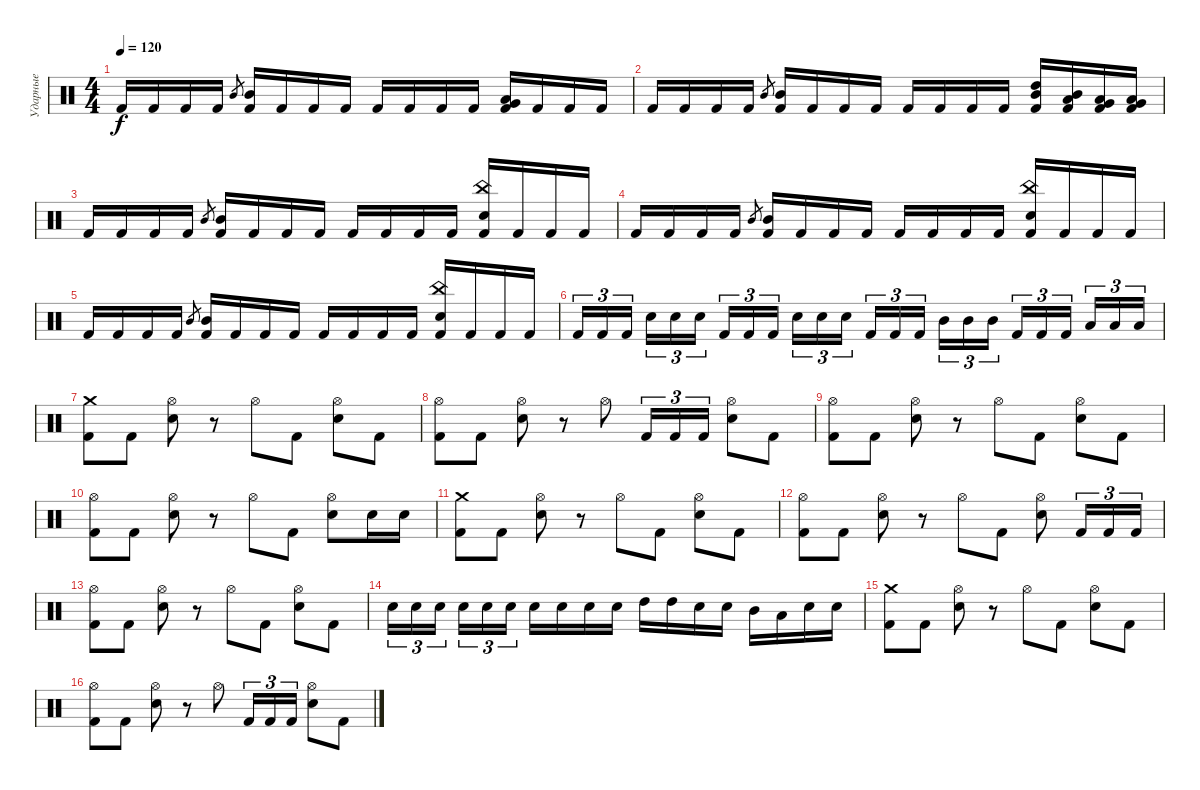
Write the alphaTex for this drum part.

\track ("Ударные" "Ударные") {instrument percussion}
\staff {score}
\articulation defaults
\ts (4 4)
\tempo 120
\clef neutral
\ks c "Kick (hit) 2".16{dy f} "Kick (hit) 2".16 "Kick (hit) 2".16 "Kick (hit) 2".16 "Mid Tom (hit)".8{gr}
("Mid Tom (hit)" "Kick (hit) 2").16 "Kick (hit) 2".16 "Kick (hit) 2".16 "Kick (hit) 2".16 "Kick (hit) 2".16 "Kick (hit) 2".16 "Kick (hit) 2".16 "Kick (hit) 2".16 ("Low Tom (hit)" "Very Low Tom (hit)" "Kick (hit) 2").16 "Kick (hit) 2".16 "Kick (hit) 2".16 "Kick (hit) 2".16 |
"Kick (hit) 2".16 "Kick (hit) 2".16 "Kick (hit) 2".16 "Kick (hit) 2".16 "Mid Tom (hit)".8{gr} ("Mid Tom (hit)" "Kick (hit) 2").16 "Kick (hit) 2".16 "Kick (hit) 2".16 "Kick (hit) 2".16 "Kick (hit) 2".16 "Kick (hit) 2".16 "Kick (hit) 2".16 "Kick (hit) 2".16 ("High Tom (hit)" "Mid Tom (hit)" "Kick (hit) 2").16 ("Mid Tom (hit)" "Low Tom (hit)" "Kick (hit) 2").16 ("Low Tom (hit)" "Very Low Tom (hit)" "Kick (hit) 2").16 ("Very Low Tom (hit)" "Low Floor Tom (hit)" "Kick (hit) 2").16 |
"Kick (hit) 2".16 "Kick (hit) 2".16 "Kick (hit) 2".16 "Kick (hit) 2".16 "Mid Tom (hit)".8{gr} ("Mid Tom (hit)" "Kick (hit) 2").16 "Kick (hit) 2".16 "Kick (hit) 2".16 "Kick (hit) 2".16 "Kick (hit) 2".16 "Kick (hit) 2".16 "Kick (hit) 2".16 "Kick (hit) 2".16 ("China (hit)" "Electric Snare (hit)" "Kick (hit) 2").16 "Kick (hit) 2".16 "Kick (hit) 2".16 "Kick (hit) 2".16 |
"Kick (hit) 2".16 "Kick (hit) 2".16 "Kick (hit) 2".16 "Kick (hit) 2".16 "Mid Tom (hit)".8{gr} ("Mid Tom (hit)" "Kick (hit) 2").16 "Kick (hit) 2".16 "Kick (hit) 2".16 "Kick (hit) 2".16 "Kick (hit) 2".16 "Kick (hit) 2".16 "Kick (hit) 2".16 "Kick (hit) 2".16 ("China (hit)" "Electric Snare (hit)" "Kick (hit) 2").16 "Kick (hit) 2".16 "Kick (hit) 2".16 "Kick (hit) 2".16 |
"Kick (hit) 2".16 "Kick (hit) 2".16 "Kick (hit) 2".16 "Kick (hit) 2".16 "Mid Tom (hit)".8{gr} ("Mid Tom (hit)" "Kick (hit) 2").16 "Kick (hit) 2".16 "Kick (hit) 2".16 "Kick (hit) 2".16 "Kick (hit) 2".16 "Kick (hit) 2".16 "Kick (hit) 2".16 "Kick (hit) 2".16 ("China (hit)" "Electric Snare (hit)" "Kick (hit) 2").16 "Kick (hit) 2".16 "Kick (hit) 2".16 "Kick (hit) 2".16 |
"Kick (hit) 2".16{tu (3 2)} "Kick (hit) 2".16{tu (3 2)} "Kick (hit) 2".16{tu (3 2) beam splitsecondary} "Electric Snare (hit)".16{tu (3 2)} "Electric Snare (hit)".16{tu (3 2)} "Electric Snare (hit)".16{tu (3 2)} "Kick (hit) 2".16{tu (3 2)} "Kick (hit) 2".16{tu (3 2)} "Kick (hit) 2".16{tu (3 2) beam splitsecondary} "Electric Snare (hit)".16{tu (3 2)} "Electric Snare (hit)".16{tu (3 2)} "Electric Snare (hit)".16{tu (3 2)} "Kick (hit) 2".16{tu (3 2)} "Kick (hit) 2".16{tu (3 2)} "Kick (hit) 2".16{tu (3 2) beam splitsecondary} "Mid Tom (hit)".16{tu (3 2)} "Mid Tom (hit)".16{tu (3 2)} "Mid Tom (hit)".16{tu (3 2)} "Kick (hit) 2".16{tu (3 2)} "Kick (hit) 2".16{tu (3 2)} "Kick (hit) 2".16{tu (3 2) beam splitsecondary} "Low Tom (hit)".16{tu (3 2)} "Low Tom (hit)".16{tu (3 2)} "Low Tom (hit)".16{tu (3 2)} |
("Crash medium (hit)" "Kick (hit) 2").8 "Kick (hit) 2".8 ("Hi-Hat (open)" "Electric Snare (hit)").8 r.8 "Hi-Hat (open)".8 "Kick (hit) 2".8 ("Hi-Hat (open)" "Electric Snare (hit)").8 "Kick (hit) 2".8 |
("Hi-Hat (open)" "Kick (hit) 2").8 "Kick (hit) 2".8 ("Hi-Hat (open)" "Electric Snare (hit)").8 r.8 "Hi-Hat (open)".8 "Kick (hit) 2".16{tu (3 2)} "Kick (hit) 2".16{tu (3 2)} "Kick (hit) 2".16{tu (3 2)} ("Hi-Hat (open)" "Electric Snare (hit)").8 "Kick (hit) 2".8 |
("Hi-Hat (open)" "Kick (hit) 2").8 "Kick (hit) 2".8 ("Hi-Hat (open)" "Electric Snare (hit)").8 r.8 "Hi-Hat (open)".8 "Kick (hit) 2".8 ("Hi-Hat (open)" "Electric Snare (hit)").8 "Kick (hit) 2".8 |
("Hi-Hat (open)" "Kick (hit) 2").8 "Kick (hit) 2".8 ("Hi-Hat (open)" "Electric Snare (hit)").8 r.8 "Hi-Hat (open)".8 "Kick (hit) 2".8 ("Hi-Hat (open)" "Electric Snare (hit)").8 "Electric Snare (hit)".16 "Electric Snare (hit)".16 |
("Crash medium (hit)" "Kick (hit) 2").8 "Kick (hit) 2".8 ("Hi-Hat (open)" "Electric Snare (hit)").8 r.8 "Hi-Hat (open)".8 "Kick (hit) 2".8 ("Hi-Hat (open)" "Electric Snare (hit)").8 "Kick (hit) 2".8 |
("Hi-Hat (open)" "Kick (hit) 2").8 "Kick (hit) 2".8 ("Hi-Hat (open)" "Electric Snare (hit)").8 r.8 "Hi-Hat (open)".8 "Kick (hit) 2".8 ("Hi-Hat (open)" "Electric Snare (hit)").8 "Kick (hit) 2".16{tu (3 2)} "Kick (hit) 2".16{tu (3 2)} "Kick (hit) 2".16{tu (3 2)} |
("Hi-Hat (open)" "Kick (hit) 2").8 "Kick (hit) 2".8 ("Hi-Hat (open)" "Electric Snare (hit)").8 r.8 "Hi-Hat (open)".8 "Kick (hit) 2".8 ("Hi-Hat (open)" "Electric Snare (hit)").8 "Kick (hit) 2".8 |
"Electric Snare (hit)".16{tu (3 2)} "Electric Snare (hit)".16{tu (3 2)} "Electric Snare (hit)".16{tu (3 2) beam splitsecondary} "Electric Snare (hit)".16{tu (3 2)} "Electric Snare (hit)".16{tu (3 2)} "Electric Snare (hit)".16{tu (3 2)} "Electric Snare (hit)".16 "Electric Snare (hit)".16 "Electric Snare (hit)".16 "Electric Snare (hit)".16 "High Tom (hit)".16 "High Tom (hit)".16 "Electric Snare (hit)".16 "Electric Snare (hit)".16 "Mid Tom (hit)".16 "Low Tom (hit)".16 "Electric Snare (hit)".16 "Electric Snare (hit)".16 |
("Crash medium (hit)" "Kick (hit) 2").8 "Kick (hit) 2".8 ("Hi-Hat (open)" "Electric Snare (hit)").8 r.8 "Hi-Hat (open)".8 "Kick (hit) 2".8 ("Hi-Hat (open)" "Electric Snare (hit)").8 "Kick (hit) 2".8 |
("Hi-Hat (open)" "Kick (hit) 2").8 "Kick (hit) 2".8 ("Hi-Hat (open)" "Electric Snare (hit)").8 r.8 "Hi-Hat (open)".8 "Kick (hit) 2".16{tu (3 2)} "Kick (hit) 2".16{tu (3 2)} "Kick (hit) 2".16{tu (3 2)} ("Hi-Hat (open)" "Electric Snare (hit)").8 "Kick (hit) 2".8
